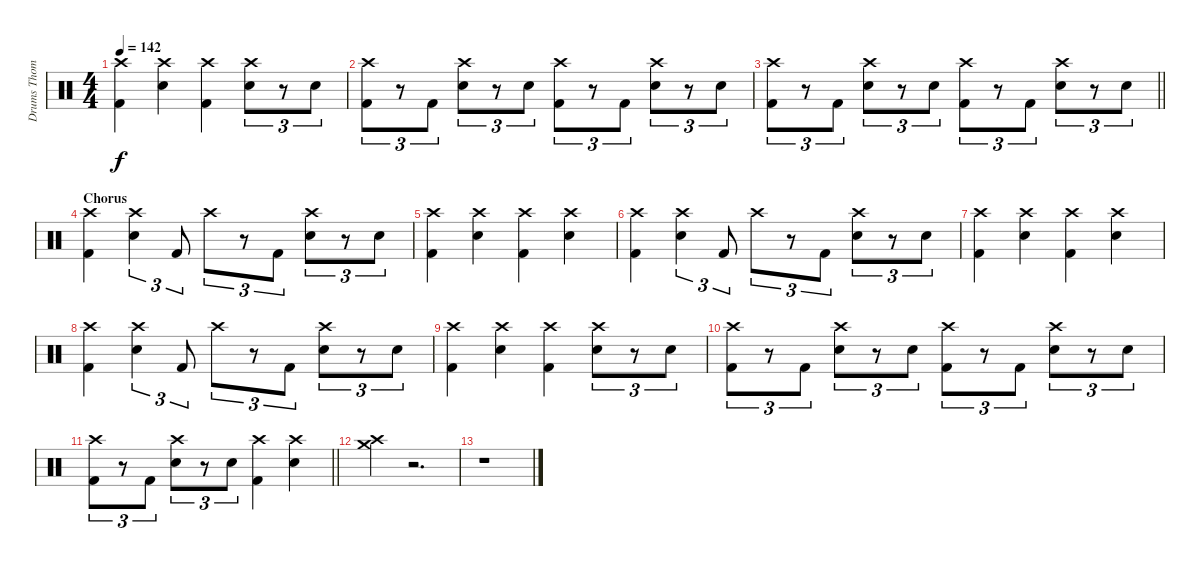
\track ("Drums Thomas Goetz" "Drums Thom") {instrument percussion}
\staff {score}
\articulation defaults
\ts (4 4)
\tempo 142
\clef neutral
\ks c
("Crash high (hit)" "Kick (hit) 2").4{dy f} ("Crash high (hit)" "Snare (hit) 2").4 ("Crash high (hit)" "Kick (hit) 2").4 ("Crash high (hit)" "Snare (hit) 2").8{tu (3 2)} r.8{tu (3 2)} "Snare (hit) 2".8{tu (3 2)} |
("Crash high (hit)" "Kick (hit) 2").8{tu (3 2)} r.8{tu (3 2)} "Kick (hit) 2".8{tu (3 2)} ("Crash high (hit)" "Snare (hit) 2").8{tu (3 2)} r.8{tu (3 2)} "Snare (hit) 2".8{tu (3 2)} ("Crash high (hit)" "Kick (hit) 2").8{tu (3 2)} r.8{tu (3 2)} "Kick (hit) 2".8{tu (3 2)} ("Crash high (hit)" "Snare (hit) 2").8{tu (3 2)} r.8{tu (3 2)} "Snare (hit) 2".8{tu (3 2)} |
\barLineRight lightlight
("Crash high (hit)" "Kick (hit) 2").8{tu (3 2)} r.8{tu (3 2)} "Kick (hit) 2".8{tu (3 2)} ("Crash high (hit)" "Snare (hit) 2").8{tu (3 2)} r.8{tu (3 2)} "Snare (hit) 2".8{tu (3 2)} ("Crash high (hit)" "Kick (hit) 2").8{tu (3 2)} r.8{tu (3 2)} "Kick (hit) 2".8{tu (3 2)} ("Crash high (hit)" "Snare (hit) 2").8{tu (3 2)} r.8{tu (3 2)} "Snare (hit) 2".8{tu (3 2)} |
\section ("" "Chorus")
("Crash high (hit)" "Kick (hit) 2").4 ("Crash high (hit)" "Snare (hit) 2").4{tu (3 2)} "Kick (hit) 2".8{tu (3 2)} "Crash high (hit)".8{tu (3 2)} r.8{tu (3 2)} "Kick (hit) 2".8{tu (3 2)} ("Crash high (hit)" "Snare (hit) 2").8{tu (3 2)} r.8{tu (3 2)} "Snare (hit) 2".8{tu (3 2)} |
("Crash high (hit)" "Kick (hit) 2").4 ("Crash high (hit)" "Snare (hit) 2").4 ("Crash high (hit)" "Kick (hit) 2").4 ("Crash high (hit)" "Snare (hit) 2").4 |
("Crash high (hit)" "Kick (hit) 2").4 ("Crash high (hit)" "Snare (hit) 2").4{tu (3 2)} "Kick (hit) 2".8{tu (3 2)} "Crash high (hit)".8{tu (3 2)} r.8{tu (3 2)} "Kick (hit) 2".8{tu (3 2)} ("Crash high (hit)" "Snare (hit) 2").8{tu (3 2)} r.8{tu (3 2)} "Snare (hit) 2".8{tu (3 2)} |
("Crash high (hit)" "Kick (hit) 2").4 ("Crash high (hit)" "Snare (hit) 2").4 ("Crash high (hit)" "Kick (hit) 2").4 ("Crash high (hit)" "Snare (hit) 2").4 |
("Crash high (hit)" "Kick (hit) 2").4 ("Crash high (hit)" "Snare (hit) 2").4{tu (3 2)} "Kick (hit) 2".8{tu (3 2)} "Crash high (hit)".8{tu (3 2)} r.8{tu (3 2)} "Kick (hit) 2".8{tu (3 2)} ("Crash high (hit)" "Snare (hit) 2").8{tu (3 2)} r.8{tu (3 2)} "Snare (hit) 2".8{tu (3 2)} |
("Crash high (hit)" "Kick (hit) 2").4 ("Crash high (hit)" "Snare (hit) 2").4 ("Crash high (hit)" "Kick (hit) 2").4 ("Crash high (hit)" "Snare (hit) 2").8{tu (3 2)} r.8{tu (3 2)} "Snare (hit) 2".8{tu (3 2)} |
("Crash high (hit)" "Kick (hit) 2").8{tu (3 2)} r.8{tu (3 2)} "Kick (hit) 2".8{tu (3 2)} ("Crash high (hit)" "Snare (hit) 2").8{tu (3 2)} r.8{tu (3 2)} "Snare (hit) 2".8{tu (3 2)} ("Crash high (hit)" "Kick (hit) 2").8{tu (3 2)} r.8{tu (3 2)} "Kick (hit) 2".8{tu (3 2)} ("Crash high (hit)" "Snare (hit) 2").8{tu (3 2)} r.8{tu (3 2)} "Snare (hit) 2".8{tu (3 2)} |
\barLineRight lightlight
("Crash high (hit)" "Kick (hit) 2").8{tu (3 2)} r.8{tu (3 2)} "Kick (hit) 2".8{tu (3 2)} ("Crash high (hit)" "Snare (hit) 2").8{tu (3 2)} r.8{tu (3 2)} "Snare (hit) 2".8{tu (3 2)} ("Crash high (hit)" "Kick (hit) 2").4 ("Crash high (hit)" "Snare (hit) 2").4 |
("Crash medium (hit)" "Crash high (hit)").4 r.2{d} |
r.1
